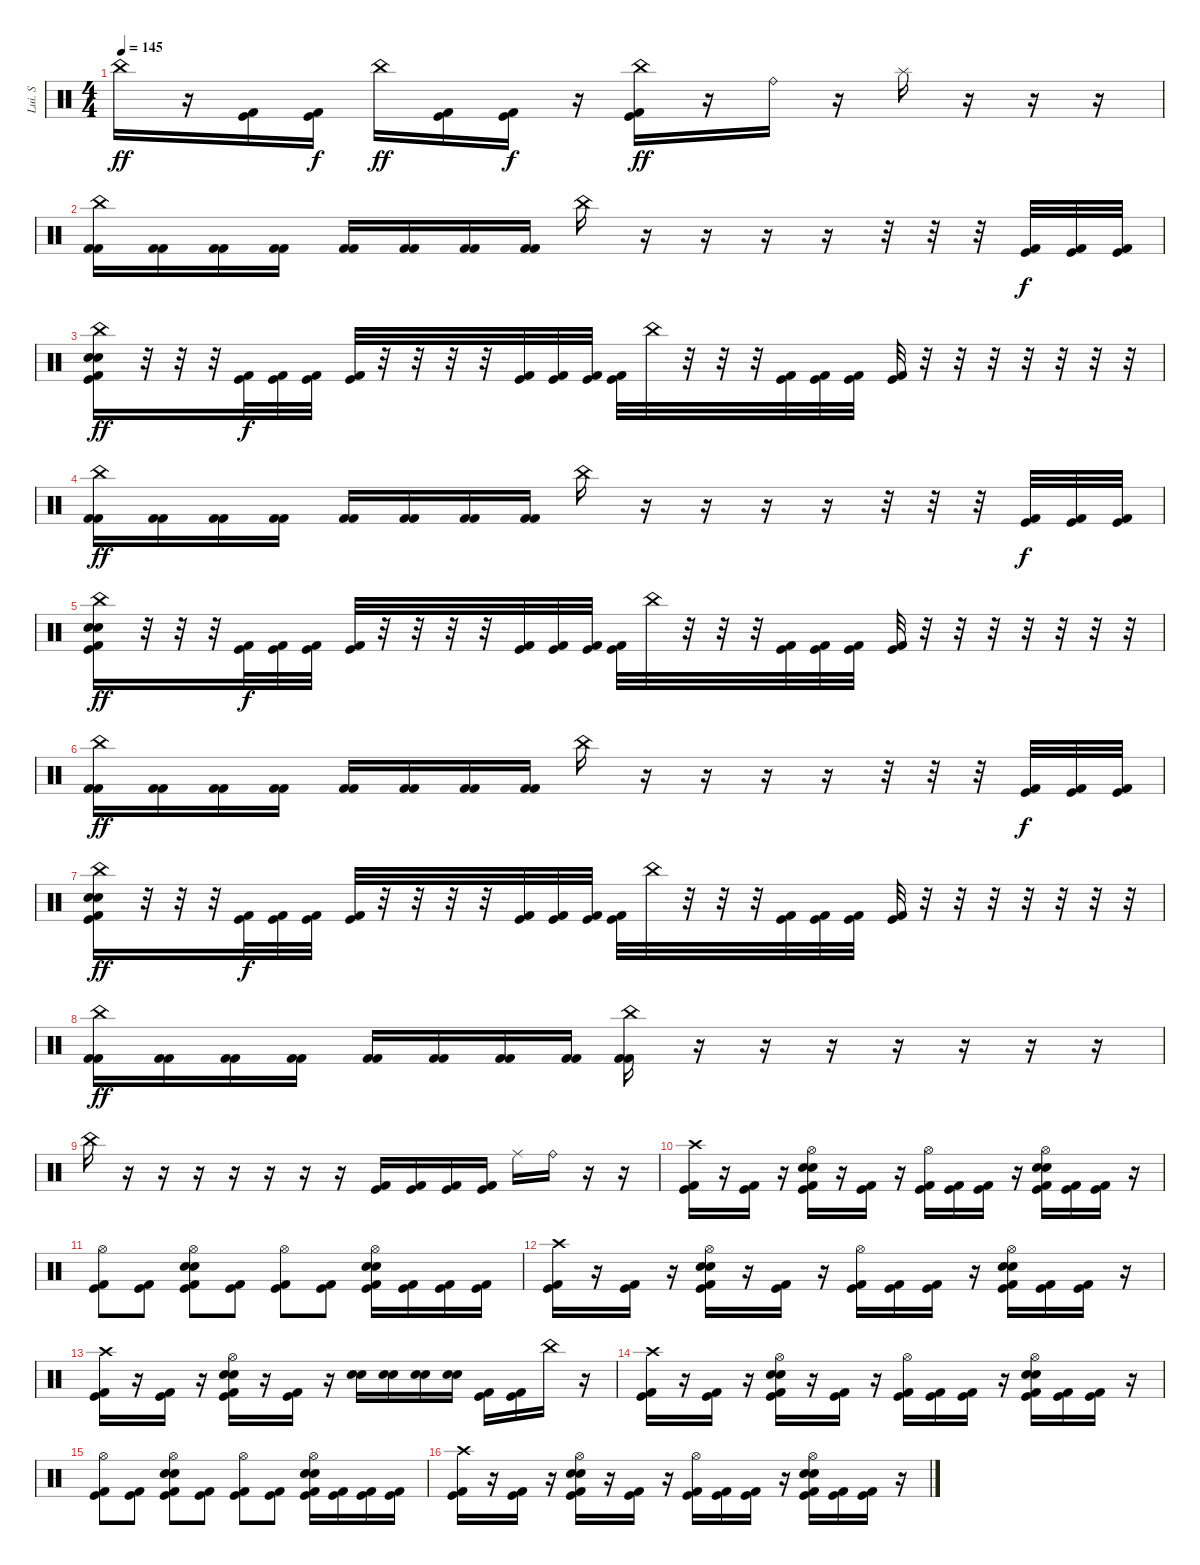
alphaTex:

\track ("Lui. S" "Lui. S") {instrument percussion}
\staff {score}
\articulation defaults
\ts (4 4)
\tempo 145
\clef neutral
\ks c "China (hit)".16{dy ff}
r.16 ("Kick (hit)" "Kick (hit) 2").16 ("Kick (hit)" "Kick (hit) 2").16{dy f} "China (hit)".16{dy ff} ("Kick (hit) 2" "Kick (hit)").16 ("Kick (hit) 2" "Kick (hit)").16{dy f} r.16 ("China (hit)" "Kick (hit)" "Kick (hit) 2").16{dy ff} r.16 "Ride (bell)".16 r.16 "Splash (hit)".16 r.16 r.16 r.16 |
("China (hit)" "Kick (hit) 2" "Kick (hit) 2").16 ("Kick (hit) 2" "Kick (hit) 2").16 ("Kick (hit) 2" "Kick (hit) 2").16 ("Kick (hit) 2" "Kick (hit) 2").16 ("Kick (hit) 2" "Kick (hit) 2").16 ("Kick (hit) 2" "Kick (hit) 2").16 ("Kick (hit) 2" "Kick (hit) 2").16 ("Kick (hit) 2" "Kick (hit) 2").16 "China (hit)".16 r.16 r.16 r.16 r.16 r.32 r.32 r.32 ("Kick (hit)" "Kick (hit) 2").32{dy f} ("Kick (hit)" "Kick (hit) 2").32 ("Kick (hit)" "Kick (hit) 2").32 |
("China (hit)" "Electric Snare (hit)" "Snare (hit) 2" "Kick (hit)" "Kick (hit) 2").16{dy ff} r.32 r.32 r.32 ("Kick (hit)" "Kick (hit) 2").32{dy f} ("Kick (hit)" "Kick (hit) 2").32 ("Kick (hit)" "Kick (hit) 2").32 ("Kick (hit)" "Kick (hit) 2").32 r.32 r.32 r.32 r.32 ("Kick (hit) 2" "Kick (hit)").32 ("Kick (hit)" "Kick (hit) 2").32 ("Kick (hit)" "Kick (hit) 2").32 ("Kick (hit)" "Kick (hit) 2").32 "China (hit)".32 r.32 r.32 r.32 ("Kick (hit) 2" "Kick (hit)").32 ("Kick (hit)" "Kick (hit) 2").32 ("Kick (hit)" "Kick (hit) 2").32 ("Kick (hit)" "Kick (hit) 2").32 r.32 r.32 r.32 r.32 r.32 r.32 r.32 |
("China (hit)" "Kick (hit) 2" "Kick (hit) 2").16{dy ff} ("Kick (hit) 2" "Kick (hit) 2").16 ("Kick (hit) 2" "Kick (hit) 2").16 ("Kick (hit) 2" "Kick (hit) 2").16 ("Kick (hit) 2" "Kick (hit) 2").16 ("Kick (hit) 2" "Kick (hit) 2").16 ("Kick (hit) 2" "Kick (hit) 2").16 ("Kick (hit) 2" "Kick (hit) 2").16 "China (hit)".16 r.16 r.16 r.16 r.16 r.32 r.32 r.32 ("Kick (hit)" "Kick (hit) 2").32{dy f} ("Kick (hit)" "Kick (hit) 2").32 ("Kick (hit)" "Kick (hit) 2").32 |
("China (hit)" "Electric Snare (hit)" "Snare (hit) 2" "Kick (hit)" "Kick (hit) 2").16{dy ff} r.32 r.32 r.32 ("Kick (hit)" "Kick (hit) 2").32{dy f} ("Kick (hit)" "Kick (hit) 2").32 ("Kick (hit)" "Kick (hit) 2").32 ("Kick (hit)" "Kick (hit) 2").32 r.32 r.32 r.32 r.32 ("Kick (hit) 2" "Kick (hit)").32 ("Kick (hit)" "Kick (hit) 2").32 ("Kick (hit)" "Kick (hit) 2").32 ("Kick (hit)" "Kick (hit) 2").32 "China (hit)".32 r.32 r.32 r.32 ("Kick (hit)" "Kick (hit) 2").32 ("Kick (hit)" "Kick (hit) 2").32 ("Kick (hit)" "Kick (hit) 2").32 ("Kick (hit)" "Kick (hit) 2").32 r.32 r.32 r.32 r.32 r.32 r.32 r.32 |
("China (hit)" "Kick (hit) 2" "Kick (hit) 2").16{dy ff} ("Kick (hit) 2" "Kick (hit) 2").16 ("Kick (hit) 2" "Kick (hit) 2").16 ("Kick (hit) 2" "Kick (hit) 2").16 ("Kick (hit) 2" "Kick (hit) 2").16 ("Kick (hit) 2" "Kick (hit) 2").16 ("Kick (hit) 2" "Kick (hit) 2").16 ("Kick (hit) 2" "Kick (hit) 2").16 "China (hit)".16 r.16 r.16 r.16 r.16 r.32 r.32 r.32 ("Kick (hit)" "Kick (hit) 2").32{dy f} ("Kick (hit)" "Kick (hit) 2").32 ("Kick (hit)" "Kick (hit) 2").32 |
("China (hit)" "Electric Snare (hit)" "Snare (hit) 2" "Kick (hit)" "Kick (hit) 2").16{dy ff} r.32 r.32 r.32 ("Kick (hit)" "Kick (hit) 2").32{dy f} ("Kick (hit)" "Kick (hit) 2").32 ("Kick (hit)" "Kick (hit) 2").32 ("Kick (hit)" "Kick (hit) 2").32 r.32 r.32 r.32 r.32 ("Kick (hit)" "Kick (hit) 2").32 ("Kick (hit)" "Kick (hit) 2").32 ("Kick (hit)" "Kick (hit) 2").32 ("Kick (hit)" "Kick (hit) 2").32 "China (hit)".32 r.32 r.32 r.32 ("Kick (hit)" "Kick (hit) 2").32 ("Kick (hit)" "Kick (hit) 2").32 ("Kick (hit)" "Kick (hit) 2").32 ("Kick (hit)" "Kick (hit) 2").32 r.32 r.32 r.32 r.32 r.32 r.32 r.32 |
("China (hit)" "Kick (hit) 2" "Kick (hit) 2").16{dy ff} ("Kick (hit) 2" "Kick (hit) 2").16 ("Kick (hit) 2" "Kick (hit) 2").16 ("Kick (hit) 2" "Kick (hit) 2").16 ("Kick (hit) 2" "Kick (hit) 2").16 ("Kick (hit) 2" "Kick (hit) 2").16 ("Kick (hit) 2" "Kick (hit) 2").16 ("Kick (hit) 2" "Kick (hit) 2").16 ("China (hit)" "Kick (hit) 2" "Kick (hit) 2").16 r.16 r.16 r.16 r.16 r.16 r.16 r.16 |
"China (hit)".16 r.16 r.16 r.16 r.16 r.16 r.16 r.16 ("Kick (hit)" "Kick (hit) 2").16 ("Kick (hit)" "Kick (hit) 2").16 ("Kick (hit)" "Kick (hit) 2").16 ("Kick (hit)" "Kick (hit) 2").16 "Ride (middle)".16 "Ride (bell)".16 r.16 r.16 |
("Crash high (hit)" "Kick (hit)" "Kick (hit) 2").16 r.16 ("Kick (hit)" "Kick (hit) 2").16 r.16 ("Hi-Hat (open)" "Snare (hit) 2" "Electric Snare (hit)" "Kick (hit)" "Kick (hit) 2").16 r.16 ("Kick (hit)" "Kick (hit) 2").16 r.16 ("Hi-Hat (open)" "Kick (hit)" "Kick (hit) 2").16 ("Kick (hit)" "Kick (hit) 2").16 ("Kick (hit)" "Kick (hit) 2").16 r.16 ("Hi-Hat (open)" "Snare (hit) 2" "Electric Snare (hit)" "Kick (hit)" "Kick (hit) 2").16 ("Kick (hit)" "Kick (hit) 2").16 ("Kick (hit)" "Kick (hit) 2").16 r.16 |
("Hi-Hat (open)" "Kick (hit)" "Kick (hit) 2").8 ("Kick (hit)" "Kick (hit) 2").8 ("Hi-Hat (open)" "Electric Snare (hit)" "Snare (hit) 2" "Kick (hit)" "Kick (hit) 2").8 ("Kick (hit)" "Kick (hit) 2").8 ("Hi-Hat (open)" "Kick (hit)" "Kick (hit) 2").8 ("Kick (hit)" "Kick (hit) 2").8 ("Hi-Hat (open)" "Electric Snare (hit)" "Snare (hit) 2" "Kick (hit)" "Kick (hit) 2").16 ("Kick (hit)" "Kick (hit) 2").16 ("Kick (hit)" "Kick (hit) 2").16 ("Kick (hit)" "Kick (hit) 2").16 |
("Crash high (hit)" "Kick (hit)" "Kick (hit) 2").16 r.16 ("Kick (hit)" "Kick (hit) 2").16 r.16 ("Hi-Hat (open)" "Snare (hit) 2" "Electric Snare (hit)" "Kick (hit)" "Kick (hit) 2").16 r.16 ("Kick (hit)" "Kick (hit) 2").16 r.16 ("Hi-Hat (open)" "Kick (hit)" "Kick (hit) 2").16 ("Kick (hit)" "Kick (hit) 2").16 ("Kick (hit)" "Kick (hit) 2").16 r.16 ("Hi-Hat (open)" "Snare (hit) 2" "Electric Snare (hit)" "Kick (hit)" "Kick (hit) 2").16 ("Kick (hit)" "Kick (hit) 2").16 ("Kick (hit)" "Kick (hit) 2").16 r.16 |
("Crash high (hit)" "Kick (hit)" "Kick (hit) 2").16 r.16 ("Kick (hit)" "Kick (hit) 2").16 r.16 ("Hi-Hat (open)" "Snare (hit) 2" "Electric Snare (hit)" "Kick (hit)" "Kick (hit) 2").16 r.16 ("Kick (hit)" "Kick (hit) 2").16 r.16 ("Snare (hit) 2" "Electric Snare (hit)").16 ("Snare (hit) 2" "Electric Snare (hit)").16 ("Snare (hit) 2" "Electric Snare (hit)").16 ("Snare (hit) 2" "Electric Snare (hit)").16 ("Kick (hit)" "Kick (hit) 2").16 ("Kick (hit)" "Kick (hit) 2").16 "China (hit)".16 r.16 |
("Crash high (hit)" "Kick (hit)" "Kick (hit) 2").16 r.16 ("Kick (hit)" "Kick (hit) 2").16 r.16 ("Hi-Hat (open)" "Snare (hit) 2" "Electric Snare (hit)" "Kick (hit)" "Kick (hit) 2").16 r.16 ("Kick (hit)" "Kick (hit) 2").16 r.16 ("Hi-Hat (open)" "Kick (hit)" "Kick (hit) 2").16 ("Kick (hit)" "Kick (hit) 2").16 ("Kick (hit)" "Kick (hit) 2").16 r.16 ("Hi-Hat (open)" "Snare (hit) 2" "Electric Snare (hit)" "Kick (hit)" "Kick (hit) 2").16 ("Kick (hit)" "Kick (hit) 2").16 ("Kick (hit)" "Kick (hit) 2").16 r.16 |
("Hi-Hat (open)" "Kick (hit)" "Kick (hit) 2").8 ("Kick (hit)" "Kick (hit) 2").8 ("Hi-Hat (open)" "Electric Snare (hit)" "Snare (hit) 2" "Kick (hit)" "Kick (hit) 2").8 ("Kick (hit)" "Kick (hit) 2").8 ("Hi-Hat (open)" "Kick (hit)" "Kick (hit) 2").8 ("Kick (hit)" "Kick (hit) 2").8 ("Hi-Hat (open)" "Electric Snare (hit)" "Snare (hit) 2" "Kick (hit)" "Kick (hit) 2").16 ("Kick (hit)" "Kick (hit) 2").16 ("Kick (hit)" "Kick (hit) 2").16 ("Kick (hit)" "Kick (hit) 2").16 |
("Crash high (hit)" "Kick (hit)" "Kick (hit) 2").16 r.16 ("Kick (hit)" "Kick (hit) 2").16 r.16 ("Hi-Hat (open)" "Snare (hit) 2" "Electric Snare (hit)" "Kick (hit)" "Kick (hit) 2").16 r.16 ("Kick (hit)" "Kick (hit) 2").16 r.16 ("Hi-Hat (open)" "Kick (hit)" "Kick (hit) 2").16 ("Kick (hit)" "Kick (hit) 2").16 ("Kick (hit)" "Kick (hit) 2").16 r.16 ("Hi-Hat (open)" "Snare (hit) 2" "Electric Snare (hit)" "Kick (hit)" "Kick (hit) 2").16 ("Kick (hit)" "Kick (hit) 2").16 ("Kick (hit)" "Kick (hit) 2").16 r.16
